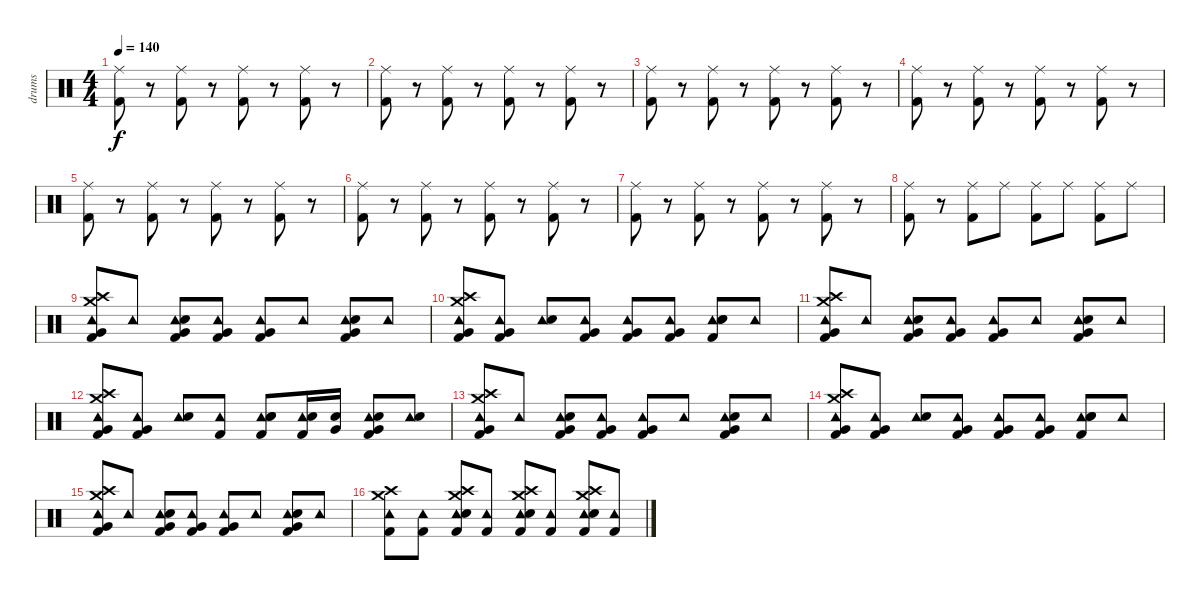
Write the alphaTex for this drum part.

\track ("drums" "drums") {instrument percussion}
\staff {score}
\articulation defaults
\ts (4 4)
\tempo 140
\clef neutral
\ks c
("Ride (middle)" "Kick (hit) 2").8{dy f} r.8 ("Ride (middle)" "Kick (hit) 2").8 r.8 ("Ride (middle)" "Kick (hit) 2").8 r.8 ("Ride (middle)" "Kick (hit) 2").8 r.8 |
("Ride (middle)" "Kick (hit) 2").8 r.8 ("Ride (middle)" "Kick (hit) 2").8 r.8 ("Ride (middle)" "Kick (hit) 2").8 r.8 ("Ride (middle)" "Kick (hit) 2").8 r.8 |
("Ride (middle)" "Kick (hit) 2").8 r.8 ("Ride (middle)" "Kick (hit) 2").8 r.8 ("Ride (middle)" "Kick (hit) 2").8 r.8 ("Ride (middle)" "Kick (hit) 2").8 r.8 |
("Ride (middle)" "Kick (hit) 2").8 r.8 ("Ride (middle)" "Kick (hit) 2").8 r.8 ("Ride (middle)" "Kick (hit) 2").8 r.8 ("Ride (middle)" "Kick (hit) 2").8 r.8 |
("Ride (middle)" "Kick (hit) 2").8 r.8 ("Ride (middle)" "Kick (hit) 2").8 r.8 ("Ride (middle)" "Kick (hit) 2").8 r.8 ("Ride (middle)" "Kick (hit) 2").8 r.8 |
("Ride (middle)" "Kick (hit) 2").8 r.8 ("Ride (middle)" "Kick (hit) 2").8 r.8 ("Ride (middle)" "Kick (hit) 2").8 r.8 ("Ride (middle)" "Kick (hit) 2").8 r.8 |
("Ride (middle)" "Kick (hit) 2").8 r.8 ("Ride (middle)" "Kick (hit) 2").8 r.8 ("Ride (middle)" "Kick (hit) 2").8 r.8 ("Ride (middle)" "Kick (hit) 2").8 r.8 |
("Ride (middle)" "Kick (hit) 2").8 r.8 ("Ride (middle)" "Kick (hit) 2").8 "Ride (middle)".8 ("Ride (middle)" "Kick (hit) 2").8 "Ride (middle)".8 ("Ride (middle)" "Kick (hit) 2").8 "Ride (middle)".8 |
("Crash high (hit)" "Tambourine (hit)" "Crash medium (hit)" "Very Low Tom (hit)" "Kick (hit) 2").8 "Tambourine (hit)".8 ("Tambourine (hit)" "Snare (hit) 2" "Very Low Tom (hit)" "Kick (hit) 2").8 ("Tambourine (hit)" "Very Low Tom (hit)" "Kick (hit) 2").8 ("Tambourine (hit)" "Very Low Tom (hit)" "Kick (hit) 2").8 "Tambourine (hit)".8 ("Tambourine (hit)" "Snare (hit) 2" "Very Low Tom (hit)" "Kick (hit) 2").8 "Tambourine (hit)".8 |
("Crash high (hit)" "Tambourine (hit)" "Crash medium (hit)" "Very Low Tom (hit)" "Kick (hit) 2").8 ("Tambourine (hit)" "Very Low Tom (hit)" "Kick (hit) 2").8 ("Tambourine (hit)" "Snare (hit) 2").8 ("Tambourine (hit)" "Very Low Tom (hit)" "Kick (hit) 2").8 ("Tambourine (hit)" "Very Low Tom (hit)" "Kick (hit) 2").8 ("Tambourine (hit)" "Very Low Tom (hit)" "Kick (hit) 2").8 ("Tambourine (hit)" "Snare (hit) 2" "Snare (hit) 2" "Kick (hit) 2").8 "Tambourine (hit)".8 |
("Crash high (hit)" "Tambourine (hit)" "Crash medium (hit)" "Very Low Tom (hit)" "Kick (hit) 2").8 "Tambourine (hit)".8 ("Tambourine (hit)" "Snare (hit) 2" "Very Low Tom (hit)" "Kick (hit) 2").8 ("Tambourine (hit)" "Very Low Tom (hit)" "Kick (hit) 2").8 ("Tambourine (hit)" "Very Low Tom (hit)" "Kick (hit) 2").8 "Tambourine (hit)".8 ("Tambourine (hit)" "Snare (hit) 2" "Very Low Tom (hit)" "Kick (hit) 2").8 "Tambourine (hit)".8 |
("Crash high (hit)" "Tambourine (hit)" "Crash medium (hit)" "Very Low Tom (hit)" "Kick (hit) 2").8 ("Tambourine (hit)" "Very Low Tom (hit)" "Kick (hit) 2").8 ("Tambourine (hit)" "Snare (hit) 2").8 ("Tambourine (hit)" "Kick (hit) 2").8 ("Tambourine (hit)" "Snare (hit) 2" "Snare (hit) 2" "Kick (hit) 2").8 ("Tambourine (hit)" "Snare (hit) 2" "Kick (hit) 2").16 ("Snare (hit) 2" "Very Low Tom (hit)").16 ("Tambourine (hit)" "Snare (hit) 2" "Very Low Tom (hit)" "Kick (hit) 2").8 ("Tambourine (hit)" "Snare (hit) 2").8 |
("Crash high (hit)" "Tambourine (hit)" "Crash medium (hit)" "Very Low Tom (hit)" "Kick (hit) 2").8 "Tambourine (hit)".8 ("Tambourine (hit)" "Snare (hit) 2" "Very Low Tom (hit)" "Kick (hit) 2").8 ("Tambourine (hit)" "Very Low Tom (hit)" "Kick (hit) 2").8 ("Tambourine (hit)" "Very Low Tom (hit)" "Kick (hit) 2").8 "Tambourine (hit)".8 ("Tambourine (hit)" "Snare (hit) 2" "Very Low Tom (hit)" "Kick (hit) 2").8 "Tambourine (hit)".8 |
("Crash high (hit)" "Tambourine (hit)" "Crash medium (hit)" "Very Low Tom (hit)" "Kick (hit) 2").8 ("Tambourine (hit)" "Very Low Tom (hit)" "Kick (hit) 2").8 ("Tambourine (hit)" "Snare (hit) 2").8 ("Tambourine (hit)" "Very Low Tom (hit)" "Kick (hit) 2").8 ("Tambourine (hit)" "Very Low Tom (hit)" "Kick (hit) 2").8 ("Tambourine (hit)" "Very Low Tom (hit)" "Kick (hit) 2").8 ("Tambourine (hit)" "Snare (hit) 2" "Snare (hit) 2" "Kick (hit) 2").8 "Tambourine (hit)".8 |
("Crash high (hit)" "Tambourine (hit)" "Crash medium (hit)" "Very Low Tom (hit)" "Kick (hit) 2").8 "Tambourine (hit)".8 ("Tambourine (hit)" "Snare (hit) 2" "Very Low Tom (hit)" "Kick (hit) 2").8 ("Tambourine (hit)" "Very Low Tom (hit)" "Kick (hit) 2").8 ("Tambourine (hit)" "Very Low Tom (hit)" "Kick (hit) 2").8 "Tambourine (hit)".8 ("Tambourine (hit)" "Snare (hit) 2" "Very Low Tom (hit)" "Kick (hit) 2").8 "Tambourine (hit)".8 |
("Crash high (hit)" "Tambourine (hit)" "Crash medium (hit)" "Kick (hit) 2").8 ("Tambourine (hit)" "Kick (hit) 2").8 ("Crash high (hit)" "Tambourine (hit)" "Crash medium (hit)" "Snare (hit) 2" "Kick (hit) 2").8 ("Tambourine (hit)" "Kick (hit) 2").8 ("Crash high (hit)" "Tambourine (hit)" "Crash medium (hit)" "Snare (hit) 2" "Kick (hit) 2").8 ("Tambourine (hit)" "Kick (hit) 2").8 ("Crash high (hit)" "Tambourine (hit)" "Crash medium (hit)" "Snare (hit) 2" "Kick (hit) 2").8 ("Tambourine (hit)" "Kick (hit) 2").8
